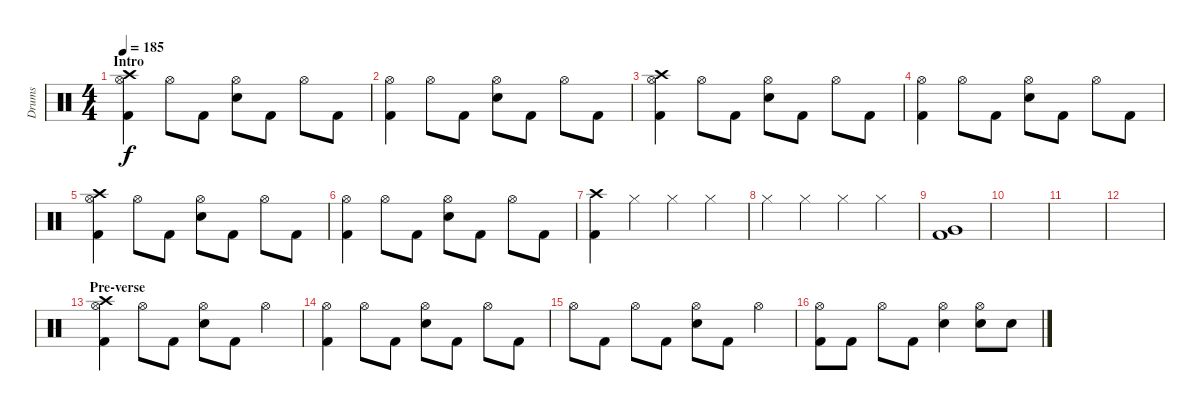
\track ("Drums" "Drums") {instrument percussion}
\staff {score}
\articulation defaults
\ts (4 4)
\section ("" "Intro")
\tempo 185
\clef neutral
\ks c
("Hi-Hat (open)" "Kick (hit) 2" "Crash high (hit)").4{dy f} "Hi-Hat (open)".8 "Kick (hit) 2".8 ("Hi-Hat (open)" "Electric Snare (hit)").8 "Kick (hit) 2".8 "Hi-Hat (open)".8 "Kick (hit) 2".8 |
("Hi-Hat (open)" "Kick (hit) 2").4 "Hi-Hat (open)".8 "Kick (hit) 2".8 ("Hi-Hat (open)" "Electric Snare (hit)").8 "Kick (hit) 2".8 "Hi-Hat (open)".8 "Kick (hit) 2".8 |
("Hi-Hat (open)" "Kick (hit) 2" "Crash high (hit)").4 "Hi-Hat (open)".8 "Kick (hit) 2".8 ("Hi-Hat (open)" "Electric Snare (hit)").8 "Kick (hit) 2".8 "Hi-Hat (open)".8 "Kick (hit) 2".8 |
("Hi-Hat (open)" "Kick (hit) 2").4 "Hi-Hat (open)".8 "Kick (hit) 2".8 ("Hi-Hat (open)" "Electric Snare (hit)").8 "Kick (hit) 2".8 "Hi-Hat (open)".8 "Kick (hit) 2".8 |
("Hi-Hat (open)" "Kick (hit) 2" "Crash high (hit)").4 "Hi-Hat (open)".8 "Kick (hit) 2".8 ("Hi-Hat (open)" "Electric Snare (hit)").8 "Kick (hit) 2".8 "Hi-Hat (open)".8 "Kick (hit) 2".8 |
("Hi-Hat (open)" "Kick (hit) 2").4 "Hi-Hat (open)".8 "Kick (hit) 2".8 ("Hi-Hat (open)" "Electric Snare (hit)").8 "Kick (hit) 2".8 "Hi-Hat (open)".8 "Kick (hit) 2".8 |
("Kick (hit) 2" "Crash high (hit)").4 "Hi-Hat (closed)".4 "Hi-Hat (closed)".4 "Hi-Hat (closed)".4 |
"Hi-Hat (closed)".4 "Hi-Hat (closed)".4 "Hi-Hat (closed)".4 "Hi-Hat (closed)".4 |
("Very Low Tom (hit)" "Kick (hit) 2").1 |
|
|
|
\section ("" "Pre-verse")
("Hi-Hat (open)" "Kick (hit) 2" "Crash high (hit)").4 "Hi-Hat (open)".8 "Kick (hit) 2".8 ("Hi-Hat (open)" "Electric Snare (hit)").8 "Kick (hit) 2".8 "Hi-Hat (open)".4 |
("Hi-Hat (open)" "Kick (hit) 2").4 "Hi-Hat (open)".8 "Kick (hit) 2".8 ("Hi-Hat (open)" "Electric Snare (hit)").8 "Kick (hit) 2".8 "Hi-Hat (open)".8 "Kick (hit) 2".8 |
"Hi-Hat (open)".8 "Kick (hit) 2".8 "Hi-Hat (open)".8 "Kick (hit) 2".8 ("Hi-Hat (open)" "Electric Snare (hit)").8 "Kick (hit) 2".8 "Hi-Hat (open)".4 |
("Hi-Hat (open)" "Kick (hit) 2").8 "Kick (hit) 2".8 "Hi-Hat (open)".8 "Kick (hit) 2".8 ("Hi-Hat (open)" "Electric Snare (hit)").4 ("Hi-Hat (open)" "Electric Snare (hit)").8 "Electric Snare (hit)".8
